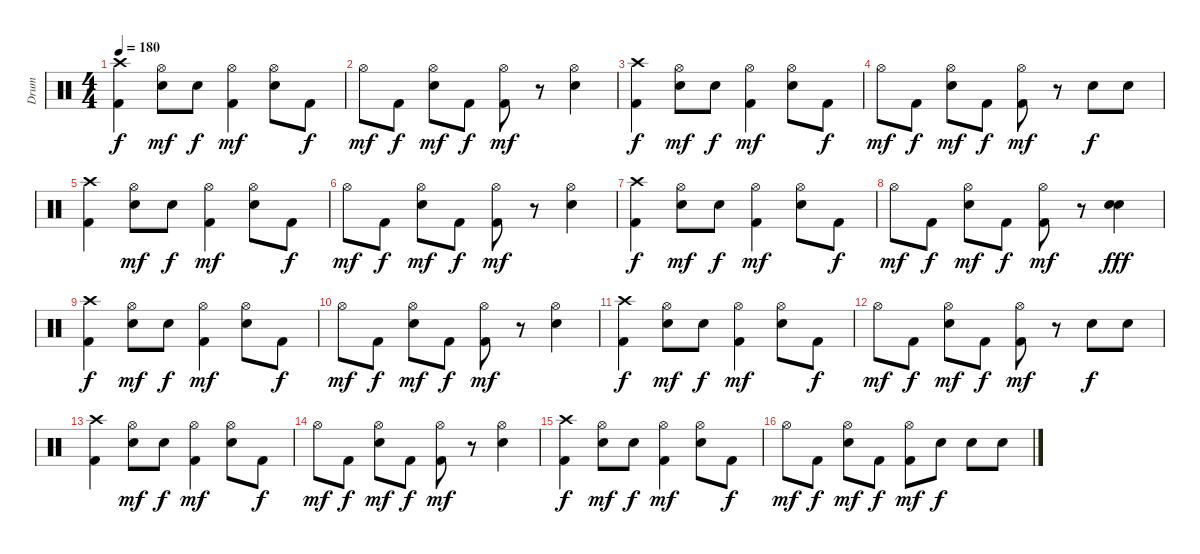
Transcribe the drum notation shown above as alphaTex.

\track ("Drum" "Drum") {instrument percussion}
\staff {score}
\articulation defaults
\ts (4 4)
\tempo 180
\clef neutral
\ks c
("Crash high (hit)" "Kick (hit) 2").4{dy f volume 16} ("Hi-Hat (open)" "Electric Snare (hit)").8{dy mf} "Electric Snare (hit)".8{dy f} ("Hi-Hat (open)" "Kick (hit) 2").4{dy mf} ("Hi-Hat (open)" "Electric Snare (hit)").8 "Kick (hit) 2".8{dy f} |
"Hi-Hat (open)".8{dy mf} "Kick (hit) 2".8{dy f} ("Hi-Hat (open)" "Electric Snare (hit)").8{dy mf} "Kick (hit) 2".8{dy f} ("Hi-Hat (open)" "Kick (hit) 2").8{dy mf} r.8 ("Hi-Hat (open)" "Electric Snare (hit)").4 |
("Crash high (hit)" "Kick (hit) 2").4{dy f volume 16} ("Hi-Hat (open)" "Electric Snare (hit)").8{dy mf} "Electric Snare (hit)".8{dy f} ("Hi-Hat (open)" "Kick (hit) 2").4{dy mf} ("Hi-Hat (open)" "Electric Snare (hit)").8 "Kick (hit) 2".8{dy f} |
"Hi-Hat (open)".8{dy mf} "Kick (hit) 2".8{dy f} ("Hi-Hat (open)" "Electric Snare (hit)").8{dy mf} "Kick (hit) 2".8{dy f} ("Hi-Hat (open)" "Kick (hit) 2").8{dy mf} r.8 "Electric Snare (hit)".8{dy f} "Electric Snare (hit)".8 |
("Crash high (hit)" "Kick (hit) 2").4{volume 16} ("Hi-Hat (open)" "Electric Snare (hit)").8{dy mf} "Electric Snare (hit)".8{dy f} ("Hi-Hat (open)" "Kick (hit) 2").4{dy mf} ("Hi-Hat (open)" "Electric Snare (hit)").8 "Kick (hit) 2".8{dy f} |
"Hi-Hat (open)".8{dy mf} "Kick (hit) 2".8{dy f} ("Hi-Hat (open)" "Electric Snare (hit)").8{dy mf} "Kick (hit) 2".8{dy f} ("Hi-Hat (open)" "Kick (hit) 2").8{dy mf} r.8 ("Hi-Hat (open)" "Electric Snare (hit)").4 |
("Crash high (hit)" "Kick (hit) 2").4{dy f volume 16} ("Hi-Hat (open)" "Electric Snare (hit)").8{dy mf} "Electric Snare (hit)".8{dy f} ("Hi-Hat (open)" "Kick (hit) 2").4{dy mf} ("Hi-Hat (open)" "Electric Snare (hit)").8 "Kick (hit) 2".8{dy f} |
"Hi-Hat (open)".8{dy mf} "Kick (hit) 2".8{dy f} ("Hi-Hat (open)" "Electric Snare (hit)").8{dy mf} "Kick (hit) 2".8{dy f} ("Hi-Hat (open)" "Kick (hit) 2").8{dy mf} r.8 ("Electric Snare (hit)" "Electric Snare (hit)").4{bd 240 dy fff} |
("Crash high (hit)" "Kick (hit) 2").4{dy f volume 16} ("Hi-Hat (open)" "Electric Snare (hit)").8{dy mf} "Electric Snare (hit)".8{dy f} ("Hi-Hat (open)" "Kick (hit) 2").4{dy mf} ("Hi-Hat (open)" "Electric Snare (hit)").8 "Kick (hit) 2".8{dy f} |
"Hi-Hat (open)".8{dy mf} "Kick (hit) 2".8{dy f} ("Hi-Hat (open)" "Electric Snare (hit)").8{dy mf} "Kick (hit) 2".8{dy f} ("Hi-Hat (open)" "Kick (hit) 2").8{dy mf} r.8 ("Hi-Hat (open)" "Electric Snare (hit)").4 |
("Crash high (hit)" "Kick (hit) 2").4{dy f volume 16} ("Hi-Hat (open)" "Electric Snare (hit)").8{dy mf} "Electric Snare (hit)".8{dy f} ("Hi-Hat (open)" "Kick (hit) 2").4{dy mf} ("Hi-Hat (open)" "Electric Snare (hit)").8 "Kick (hit) 2".8{dy f} |
"Hi-Hat (open)".8{dy mf} "Kick (hit) 2".8{dy f} ("Hi-Hat (open)" "Electric Snare (hit)").8{dy mf} "Kick (hit) 2".8{dy f} ("Hi-Hat (open)" "Kick (hit) 2").8{dy mf} r.8 "Electric Snare (hit)".8{dy f} "Electric Snare (hit)".8 |
("Crash high (hit)" "Kick (hit) 2").4{volume 16} ("Hi-Hat (open)" "Electric Snare (hit)").8{dy mf} "Electric Snare (hit)".8{dy f} ("Hi-Hat (open)" "Kick (hit) 2").4{dy mf} ("Hi-Hat (open)" "Electric Snare (hit)").8 "Kick (hit) 2".8{dy f} |
"Hi-Hat (open)".8{dy mf} "Kick (hit) 2".8{dy f} ("Hi-Hat (open)" "Electric Snare (hit)").8{dy mf} "Kick (hit) 2".8{dy f} ("Hi-Hat (open)" "Kick (hit) 2").8{dy mf} r.8 ("Hi-Hat (open)" "Electric Snare (hit)").4 |
("Crash high (hit)" "Kick (hit) 2").4{dy f volume 16} ("Hi-Hat (open)" "Electric Snare (hit)").8{dy mf} "Electric Snare (hit)".8{dy f} ("Hi-Hat (open)" "Kick (hit) 2").4{dy mf} ("Hi-Hat (open)" "Electric Snare (hit)").8 "Kick (hit) 2".8{dy f} |
"Hi-Hat (open)".8{dy mf} "Kick (hit) 2".8{dy f} ("Hi-Hat (open)" "Electric Snare (hit)").8{dy mf} "Kick (hit) 2".8{dy f} ("Hi-Hat (open)" "Kick (hit) 2").8{dy mf} "Electric Snare (hit)".8{dy f} "Electric Snare (hit)".8 "Electric Snare (hit)".8
